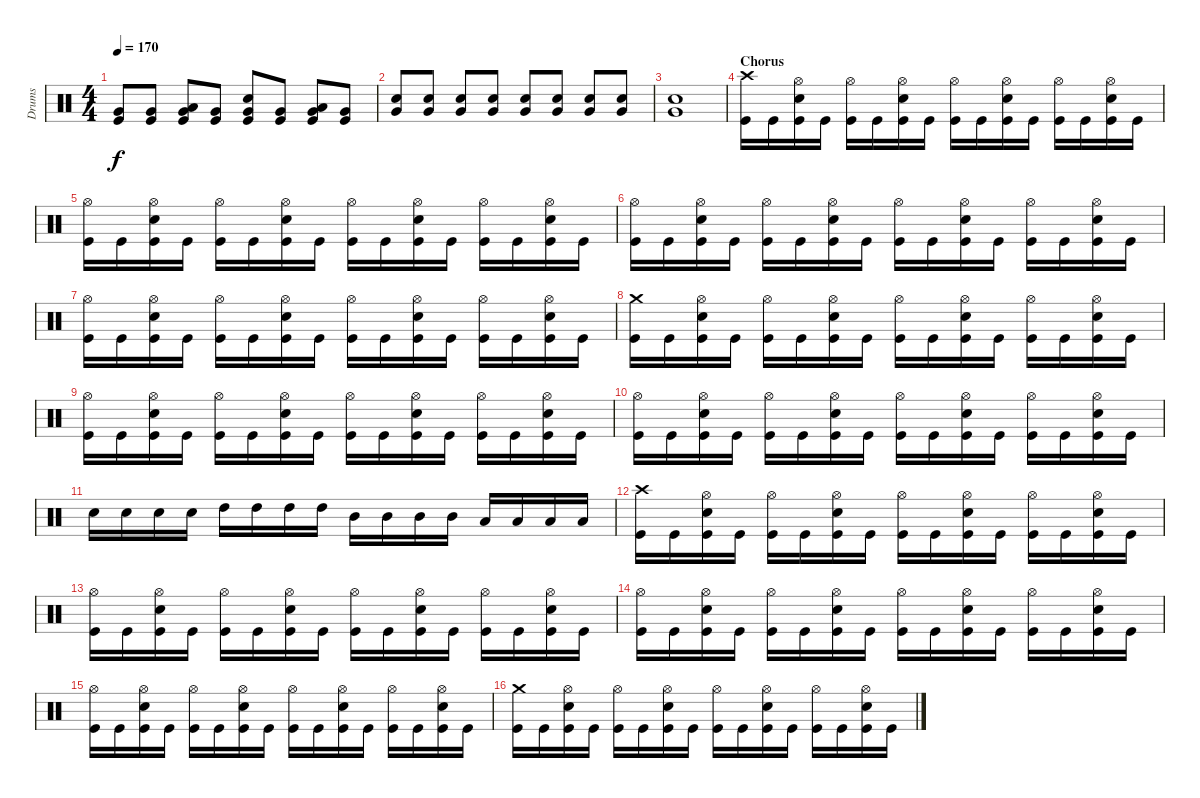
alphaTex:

\track ("Drums" "Drums") {instrument percussion}
\staff {score}
\articulation defaults
\ts (4 4)
\tempo 170
\clef neutral
\ks c
("Very Low Tom (hit)" "Kick (hit)").8{dy f} ("Very Low Tom (hit)" "Kick (hit)").8 ("Low Tom (hit)" "Very Low Tom (hit)" "Kick (hit)").8 ("Very Low Tom (hit)" "Kick (hit)").8 ("Very Low Tom (hit)" "Snare (hit) 2" "Kick (hit)").8 ("Very Low Tom (hit)" "Kick (hit)").8 ("Low Tom (hit)" "Very Low Tom (hit)" "Kick (hit)").8 ("Very Low Tom (hit)" "Kick (hit)").8 |
("Very Low Tom (hit)" "Snare (hit) 2").8 ("Very Low Tom (hit)" "Snare (hit) 2").8 ("Very Low Tom (hit)" "Snare (hit) 2").8 ("Very Low Tom (hit)" "Snare (hit) 2").8 ("Very Low Tom (hit)" "Snare (hit) 2").8 ("Very Low Tom (hit)" "Snare (hit) 2").8 ("Very Low Tom (hit)" "Snare (hit) 2").8 ("Very Low Tom (hit)" "Snare (hit) 2").8 |
("Very Low Tom (hit)" "Snare (hit) 2").1 |
\section ("" "Chorus")
("Crash high (hit)" "Kick (hit)").16 "Kick (hit)".16 ("Hi-Hat (open)" "Snare (hit) 2" "Kick (hit)").16 "Kick (hit)".16 ("Hi-Hat (open)" "Kick (hit)").16 "Kick (hit)".16 ("Hi-Hat (open)" "Snare (hit) 2" "Kick (hit)").16 "Kick (hit)".16 ("Hi-Hat (open)" "Kick (hit)").16 "Kick (hit)".16 ("Hi-Hat (open)" "Snare (hit) 2" "Kick (hit)").16 "Kick (hit)".16 ("Hi-Hat (open)" "Kick (hit)").16 "Kick (hit)".16 ("Hi-Hat (open)" "Snare (hit) 2" "Kick (hit)").16 "Kick (hit)".16 |
("Hi-Hat (open)" "Kick (hit)").16 "Kick (hit)".16 ("Hi-Hat (open)" "Snare (hit) 2" "Kick (hit)").16 "Kick (hit)".16 ("Hi-Hat (open)" "Kick (hit)").16 "Kick (hit)".16 ("Hi-Hat (open)" "Snare (hit) 2" "Kick (hit)").16 "Kick (hit)".16 ("Hi-Hat (open)" "Kick (hit)").16 "Kick (hit)".16 ("Hi-Hat (open)" "Snare (hit) 2" "Kick (hit)").16 "Kick (hit)".16 ("Hi-Hat (open)" "Kick (hit)").16 "Kick (hit)".16 ("Hi-Hat (open)" "Snare (hit) 2" "Kick (hit)").16 "Kick (hit)".16 |
("Hi-Hat (open)" "Kick (hit)").16 "Kick (hit)".16 ("Hi-Hat (open)" "Snare (hit) 2" "Kick (hit)").16 "Kick (hit)".16 ("Hi-Hat (open)" "Kick (hit)").16 "Kick (hit)".16 ("Hi-Hat (open)" "Snare (hit) 2" "Kick (hit)").16 "Kick (hit)".16 ("Hi-Hat (open)" "Kick (hit)").16 "Kick (hit)".16 ("Hi-Hat (open)" "Snare (hit) 2" "Kick (hit)").16 "Kick (hit)".16 ("Hi-Hat (open)" "Kick (hit)").16 "Kick (hit)".16 ("Hi-Hat (open)" "Snare (hit) 2" "Kick (hit)").16 "Kick (hit)".16 |
("Hi-Hat (open)" "Kick (hit)").16 "Kick (hit)".16 ("Hi-Hat (open)" "Snare (hit) 2" "Kick (hit)").16 "Kick (hit)".16 ("Hi-Hat (open)" "Kick (hit)").16 "Kick (hit)".16 ("Hi-Hat (open)" "Snare (hit) 2" "Kick (hit)").16 "Kick (hit)".16 ("Hi-Hat (open)" "Kick (hit)").16 "Kick (hit)".16 ("Hi-Hat (open)" "Snare (hit) 2" "Kick (hit)").16 "Kick (hit)".16 ("Hi-Hat (open)" "Kick (hit)").16 "Kick (hit)".16 ("Hi-Hat (open)" "Snare (hit) 2" "Kick (hit)").16 "Kick (hit)".16 |
("Crash medium (hit)" "Kick (hit)").16 "Kick (hit)".16 ("Hi-Hat (open)" "Snare (hit) 2" "Kick (hit)").16 "Kick (hit)".16 ("Hi-Hat (open)" "Kick (hit)").16 "Kick (hit)".16 ("Hi-Hat (open)" "Snare (hit) 2" "Kick (hit)").16 "Kick (hit)".16 ("Hi-Hat (open)" "Kick (hit)").16 "Kick (hit)".16 ("Hi-Hat (open)" "Snare (hit) 2" "Kick (hit)").16 "Kick (hit)".16 ("Hi-Hat (open)" "Kick (hit)").16 "Kick (hit)".16 ("Hi-Hat (open)" "Snare (hit) 2" "Kick (hit)").16 "Kick (hit)".16 |
("Hi-Hat (open)" "Kick (hit)").16 "Kick (hit)".16 ("Hi-Hat (open)" "Snare (hit) 2" "Kick (hit)").16 "Kick (hit)".16 ("Hi-Hat (open)" "Kick (hit)").16 "Kick (hit)".16 ("Hi-Hat (open)" "Snare (hit) 2" "Kick (hit)").16 "Kick (hit)".16 ("Hi-Hat (open)" "Kick (hit)").16 "Kick (hit)".16 ("Hi-Hat (open)" "Snare (hit) 2" "Kick (hit)").16 "Kick (hit)".16 ("Hi-Hat (open)" "Kick (hit)").16 "Kick (hit)".16 ("Hi-Hat (open)" "Snare (hit) 2" "Kick (hit)").16 "Kick (hit)".16 |
("Hi-Hat (open)" "Kick (hit)").16 "Kick (hit)".16 ("Hi-Hat (open)" "Snare (hit) 2" "Kick (hit)").16 "Kick (hit)".16 ("Hi-Hat (open)" "Kick (hit)").16 "Kick (hit)".16 ("Hi-Hat (open)" "Snare (hit) 2" "Kick (hit)").16 "Kick (hit)".16 ("Hi-Hat (open)" "Kick (hit)").16 "Kick (hit)".16 ("Hi-Hat (open)" "Snare (hit) 2" "Kick (hit)").16 "Kick (hit)".16 ("Hi-Hat (open)" "Kick (hit)").16 "Kick (hit)".16 ("Hi-Hat (open)" "Snare (hit) 2" "Kick (hit)").16 "Kick (hit)".16 |
"Snare (hit) 2".16 "Snare (hit) 2".16 "Snare (hit) 2".16 "Snare (hit) 2".16 "High Tom (hit)".16 "High Tom (hit)".16 "High Tom (hit)".16 "High Tom (hit)".16 "Mid Tom (hit)".16 "Mid Tom (hit)".16 "Mid Tom (hit)".16 "Mid Tom (hit)".16 "Low Tom (hit)".16 "Low Tom (hit)".16 "Low Tom (hit)".16 "Low Tom (hit)".16 |
("Crash high (hit)" "Kick (hit)").16 "Kick (hit)".16 ("Hi-Hat (open)" "Snare (hit) 2" "Kick (hit)").16 "Kick (hit)".16 ("Hi-Hat (open)" "Kick (hit)").16 "Kick (hit)".16 ("Hi-Hat (open)" "Snare (hit) 2" "Kick (hit)").16 "Kick (hit)".16 ("Hi-Hat (open)" "Kick (hit)").16 "Kick (hit)".16 ("Hi-Hat (open)" "Snare (hit) 2" "Kick (hit)").16 "Kick (hit)".16 ("Hi-Hat (open)" "Kick (hit)").16 "Kick (hit)".16 ("Hi-Hat (open)" "Snare (hit) 2" "Kick (hit)").16 "Kick (hit)".16 |
("Hi-Hat (open)" "Kick (hit)").16 "Kick (hit)".16 ("Hi-Hat (open)" "Snare (hit) 2" "Kick (hit)").16 "Kick (hit)".16 ("Hi-Hat (open)" "Kick (hit)").16 "Kick (hit)".16 ("Hi-Hat (open)" "Snare (hit) 2" "Kick (hit)").16 "Kick (hit)".16 ("Hi-Hat (open)" "Kick (hit)").16 "Kick (hit)".16 ("Hi-Hat (open)" "Snare (hit) 2" "Kick (hit)").16 "Kick (hit)".16 ("Hi-Hat (open)" "Kick (hit)").16 "Kick (hit)".16 ("Hi-Hat (open)" "Snare (hit) 2" "Kick (hit)").16 "Kick (hit)".16 |
("Hi-Hat (open)" "Kick (hit)").16 "Kick (hit)".16 ("Hi-Hat (open)" "Snare (hit) 2" "Kick (hit)").16 "Kick (hit)".16 ("Hi-Hat (open)" "Kick (hit)").16 "Kick (hit)".16 ("Hi-Hat (open)" "Snare (hit) 2" "Kick (hit)").16 "Kick (hit)".16 ("Hi-Hat (open)" "Kick (hit)").16 "Kick (hit)".16 ("Hi-Hat (open)" "Snare (hit) 2" "Kick (hit)").16 "Kick (hit)".16 ("Hi-Hat (open)" "Kick (hit)").16 "Kick (hit)".16 ("Hi-Hat (open)" "Snare (hit) 2" "Kick (hit)").16 "Kick (hit)".16 |
("Hi-Hat (open)" "Kick (hit)").16 "Kick (hit)".16 ("Hi-Hat (open)" "Snare (hit) 2" "Kick (hit)").16 "Kick (hit)".16 ("Hi-Hat (open)" "Kick (hit)").16 "Kick (hit)".16 ("Hi-Hat (open)" "Snare (hit) 2" "Kick (hit)").16 "Kick (hit)".16 ("Hi-Hat (open)" "Kick (hit)").16 "Kick (hit)".16 ("Hi-Hat (open)" "Snare (hit) 2" "Kick (hit)").16 "Kick (hit)".16 ("Hi-Hat (open)" "Kick (hit)").16 "Kick (hit)".16 ("Hi-Hat (open)" "Snare (hit) 2" "Kick (hit)").16 "Kick (hit)".16 |
("Crash medium (hit)" "Kick (hit)").16 "Kick (hit)".16 ("Hi-Hat (open)" "Snare (hit) 2" "Kick (hit)").16 "Kick (hit)".16 ("Hi-Hat (open)" "Kick (hit)").16 "Kick (hit)".16 ("Hi-Hat (open)" "Snare (hit) 2" "Kick (hit)").16 "Kick (hit)".16 ("Hi-Hat (open)" "Kick (hit)").16 "Kick (hit)".16 ("Hi-Hat (open)" "Snare (hit) 2" "Kick (hit)").16 "Kick (hit)".16 ("Hi-Hat (open)" "Kick (hit)").16 "Kick (hit)".16 ("Hi-Hat (open)" "Snare (hit) 2" "Kick (hit)").16 "Kick (hit)".16
